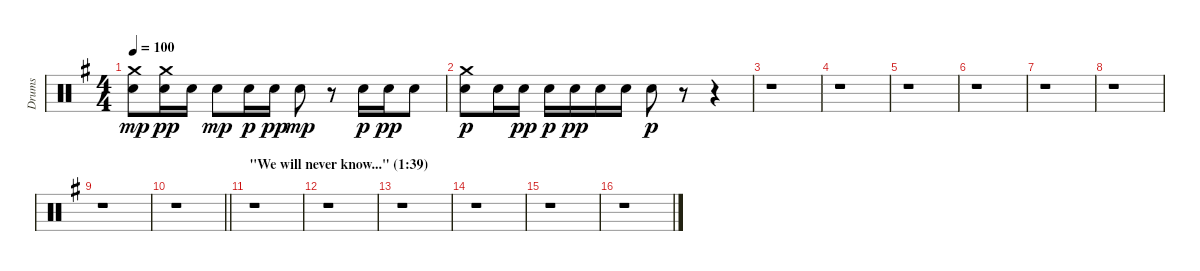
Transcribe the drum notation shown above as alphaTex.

\track ("Drums" "Drums") {instrument percussion}
\staff {score}
\articulation defaults
\ts (4 4)
\tempo 100
\clef neutral
\ks eminor
("Crash medium (hit)" "Snare (hit) 2").8{dy mp} ("Crash medium (hit)" "Snare (hit) 2").16{dy pp} "Snare (hit) 2".16 "Snare (hit) 2".8{dy mp} "Snare (hit) 2".16{dy p} "Snare (hit) 2".16{dy pp} "Snare (hit) 2".8{dy mp} r.8 "Snare (hit) 2".16{dy p} "Snare (hit) 2".16{dy pp} "Snare (hit) 2".8 |
("Crash medium (hit)" "Snare (hit) 2").8{dy p} "Snare (hit) 2".16 "Snare (hit) 2".16{dy pp} "Snare (hit) 2".16{dy p} "Snare (hit) 2".16{dy pp} "Snare (hit) 2".16 "Snare (hit) 2".16 "Snare (hit) 2".8{dy p} r.8 r.4 |
r.1 |
r.1 |
r.1 |
r.1 |
r.1 |
r.1 |
r.1 |
\barLineRight lightlight
r.1 |
\section ("" "\"We will never know...\" (1:39)")
r.1 |
r.1 |
r.1 |
r.1 |
r.1 |
r.1
